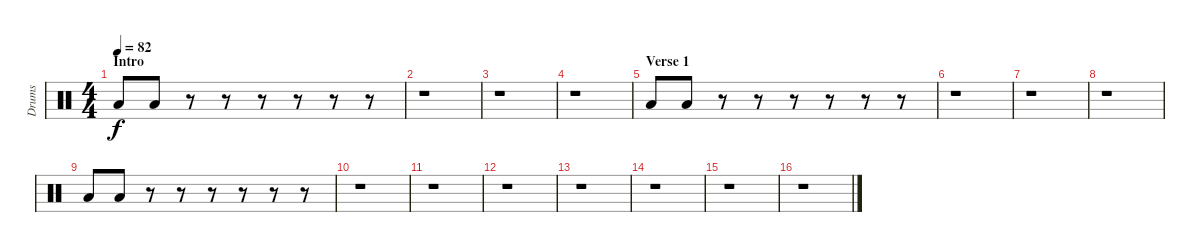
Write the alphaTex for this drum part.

\track ("Drums" "Drums") {instrument percussion}
\staff {score}
\articulation defaults
\ts (4 4)
\section ("" "Intro")
\tempo 82
\clef neutral
\ks c "Low Floor Tom (hit)".8{dy f} "Low Floor Tom (hit)".8
r.8 r.8 r.8 r.8 r.8 r.8 |
r.1 |
r.1 |
r.1 |
\section ("" "Verse 1")
"Low Floor Tom (hit)".8 "Low Floor Tom (hit)".8 r.8 r.8 r.8 r.8 r.8 r.8 |
r.1 |
r.1 |
r.1 |
"Low Floor Tom (hit)".8 "Low Floor Tom (hit)".8 r.8 r.8 r.8 r.8 r.8 r.8 |
r.1 |
r.1 |
r.1 |
r.1 |
r.1 |
r.1 |
r.1
